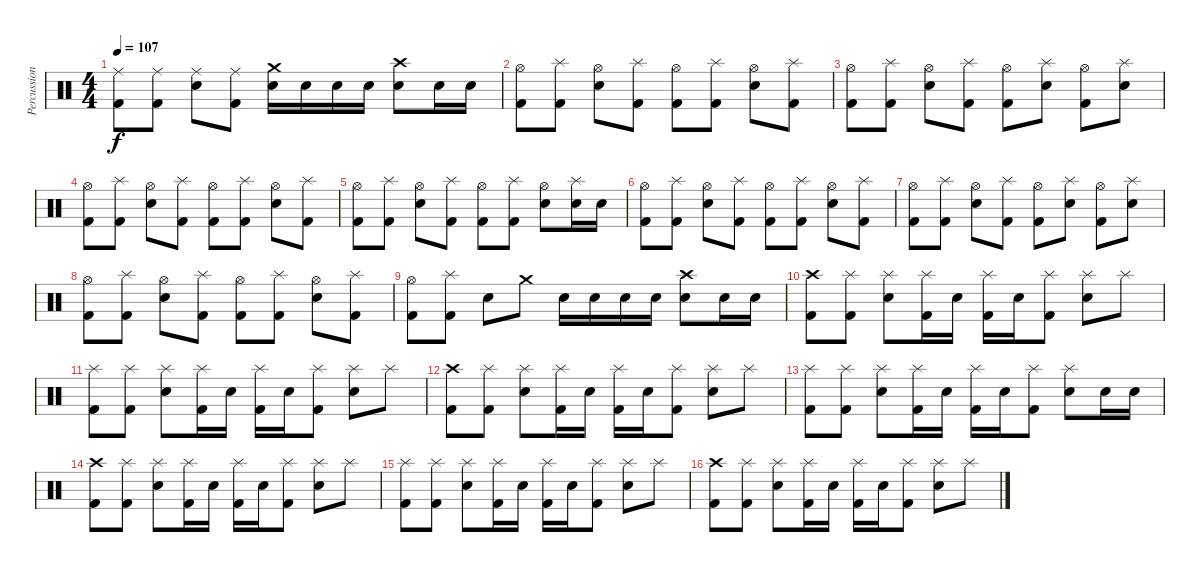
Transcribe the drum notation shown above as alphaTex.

\track ("Percussions" "Percussion") {instrument percussion}
\staff {score}
\articulation defaults
\ts (4 4)
\tempo 107
\clef neutral
\ks c
("Ride (middle)" "Kick (hit) 2").8{dy f volume 13} ("Ride (middle)" "Kick (hit) 2").8 ("Ride (middle)" "Snare (hit) 2").8 ("Ride (middle)" "Kick (hit) 2").8 ("Crash medium (hit)" "Snare (hit) 2").16 "Snare (hit) 2".16 "Snare (hit) 2".16 "Snare (hit) 2".16 ("Crash high (hit)" "Snare (hit) 2").8 "Snare (hit) 2".16 "Snare (hit) 2".16 |
("Hi-Hat (open)" "Kick (hit) 2").8 ("Splash (hit)" "Kick (hit) 2").8 ("Hi-Hat (open)" "Snare (hit) 2").8 ("Splash (hit)" "Kick (hit) 2").8 ("Hi-Hat (open)" "Kick (hit) 2").8 ("Splash (hit)" "Kick (hit) 2").8 ("Hi-Hat (open)" "Snare (hit) 2").8 ("Splash (hit)" "Kick (hit) 2").8 |
("Hi-Hat (open)" "Kick (hit) 2").8 ("Splash (hit)" "Kick (hit) 2").8 ("Hi-Hat (open)" "Snare (hit) 2").8 ("Splash (hit)" "Kick (hit) 2").8 ("Hi-Hat (open)" "Kick (hit) 2").8 ("Splash (hit)" "Snare (hit) 2").8 ("Hi-Hat (open)" "Kick (hit) 2").8 ("Splash (hit)" "Snare (hit) 2").8 |
("Hi-Hat (open)" "Kick (hit) 2").8 ("Splash (hit)" "Kick (hit) 2").8 ("Hi-Hat (open)" "Snare (hit) 2").8 ("Splash (hit)" "Kick (hit) 2").8 ("Hi-Hat (open)" "Kick (hit) 2").8 ("Splash (hit)" "Kick (hit) 2").8 ("Hi-Hat (open)" "Snare (hit) 2").8 ("Splash (hit)" "Kick (hit) 2").8 |
("Hi-Hat (open)" "Kick (hit) 2").8 ("Splash (hit)" "Kick (hit) 2").8 ("Hi-Hat (open)" "Snare (hit) 2").8 ("Splash (hit)" "Kick (hit) 2").8 ("Hi-Hat (open)" "Kick (hit) 2").8 ("Splash (hit)" "Kick (hit) 2").8 ("Hi-Hat (open)" "Snare (hit) 2").8 ("Splash (hit)" "Snare (hit) 2").16 "Snare (hit) 2".16 |
("Hi-Hat (open)" "Kick (hit) 2").8 ("Splash (hit)" "Kick (hit) 2").8 ("Hi-Hat (open)" "Snare (hit) 2").8 ("Splash (hit)" "Kick (hit) 2").8 ("Hi-Hat (open)" "Kick (hit) 2").8 ("Splash (hit)" "Kick (hit) 2").8 ("Hi-Hat (open)" "Snare (hit) 2").8 ("Splash (hit)" "Kick (hit) 2").8 |
("Hi-Hat (open)" "Kick (hit) 2").8 ("Splash (hit)" "Kick (hit) 2").8 ("Hi-Hat (open)" "Snare (hit) 2").8 ("Splash (hit)" "Kick (hit) 2").8 ("Hi-Hat (open)" "Kick (hit) 2").8 ("Splash (hit)" "Snare (hit) 2").8 ("Hi-Hat (open)" "Kick (hit) 2").8 ("Splash (hit)" "Snare (hit) 2").8 |
("Hi-Hat (open)" "Kick (hit) 2").8 ("Splash (hit)" "Kick (hit) 2").8 ("Hi-Hat (open)" "Snare (hit) 2").8 ("Splash (hit)" "Kick (hit) 2").8 ("Hi-Hat (open)" "Kick (hit) 2").8 ("Splash (hit)" "Kick (hit) 2").8 ("Hi-Hat (open)" "Snare (hit) 2").8 ("Splash (hit)" "Kick (hit) 2").8 |
("Hi-Hat (open)" "Kick (hit) 2").8 ("Splash (hit)" "Kick (hit) 2").8 "Snare (hit) 2".8 "Crash medium (hit)".8 "Snare (hit) 2".16 "Snare (hit) 2".16 "Snare (hit) 2".16 "Snare (hit) 2".16 ("Crash high (hit)" "Snare (hit) 2").8 "Snare (hit) 2".16 "Snare (hit) 2".16 |
("Crash high (hit)" "Kick (hit) 2").8 ("Splash (hit)" "Kick (hit) 2").8 ("Splash (hit)" "Snare (hit) 2").8 ("Splash (hit)" "Kick (hit) 2").16 "Snare (hit) 2".16 ("Splash (hit)" "Kick (hit) 2").16 "Snare (hit) 2".16 ("Splash (hit)" "Kick (hit) 2").8 ("Splash (hit)" "Snare (hit) 2").8 "Splash (hit)".8 |
("Splash (hit)" "Kick (hit) 2").8 ("Splash (hit)" "Kick (hit) 2").8 ("Splash (hit)" "Snare (hit) 2").8 ("Splash (hit)" "Kick (hit) 2").16 "Snare (hit) 2".16 ("Splash (hit)" "Kick (hit) 2").16 "Snare (hit) 2".16 ("Splash (hit)" "Kick (hit) 2").8 ("Splash (hit)" "Snare (hit) 2").8 "Splash (hit)".8 |
("Crash high (hit)" "Kick (hit) 2").8 ("Splash (hit)" "Kick (hit) 2").8 ("Splash (hit)" "Snare (hit) 2").8 ("Splash (hit)" "Kick (hit) 2").16 "Snare (hit) 2".16 ("Splash (hit)" "Kick (hit) 2").16 "Snare (hit) 2".16 ("Splash (hit)" "Kick (hit) 2").8 ("Splash (hit)" "Snare (hit) 2").8 "Splash (hit)".8 |
("Splash (hit)" "Kick (hit) 2").8 ("Splash (hit)" "Kick (hit) 2").8 ("Splash (hit)" "Snare (hit) 2").8 ("Splash (hit)" "Kick (hit) 2").16 "Snare (hit) 2".16 ("Splash (hit)" "Kick (hit) 2").16 "Snare (hit) 2".16 ("Splash (hit)" "Kick (hit) 2").8 ("Splash (hit)" "Snare (hit) 2").8 "Snare (hit) 2".16 "Snare (hit) 2".16 |
("Crash high (hit)" "Kick (hit) 2").8 ("Splash (hit)" "Kick (hit) 2").8 ("Splash (hit)" "Snare (hit) 2").8 ("Splash (hit)" "Kick (hit) 2").16 "Snare (hit) 2".16 ("Splash (hit)" "Kick (hit) 2").16 "Snare (hit) 2".16 ("Splash (hit)" "Kick (hit) 2").8 ("Splash (hit)" "Snare (hit) 2").8 "Splash (hit)".8 |
("Splash (hit)" "Kick (hit) 2").8 ("Splash (hit)" "Kick (hit) 2").8 ("Splash (hit)" "Snare (hit) 2").8 ("Splash (hit)" "Kick (hit) 2").16 "Snare (hit) 2".16 ("Splash (hit)" "Kick (hit) 2").16 "Snare (hit) 2".16 ("Splash (hit)" "Kick (hit) 2").8 ("Splash (hit)" "Snare (hit) 2").8 "Splash (hit)".8 |
("Crash high (hit)" "Kick (hit) 2").8 ("Splash (hit)" "Kick (hit) 2").8 ("Splash (hit)" "Snare (hit) 2").8 ("Splash (hit)" "Kick (hit) 2").16 "Snare (hit) 2".16 ("Splash (hit)" "Kick (hit) 2").16 "Snare (hit) 2".16 ("Splash (hit)" "Kick (hit) 2").8 ("Splash (hit)" "Snare (hit) 2").8 "Splash (hit)".8
